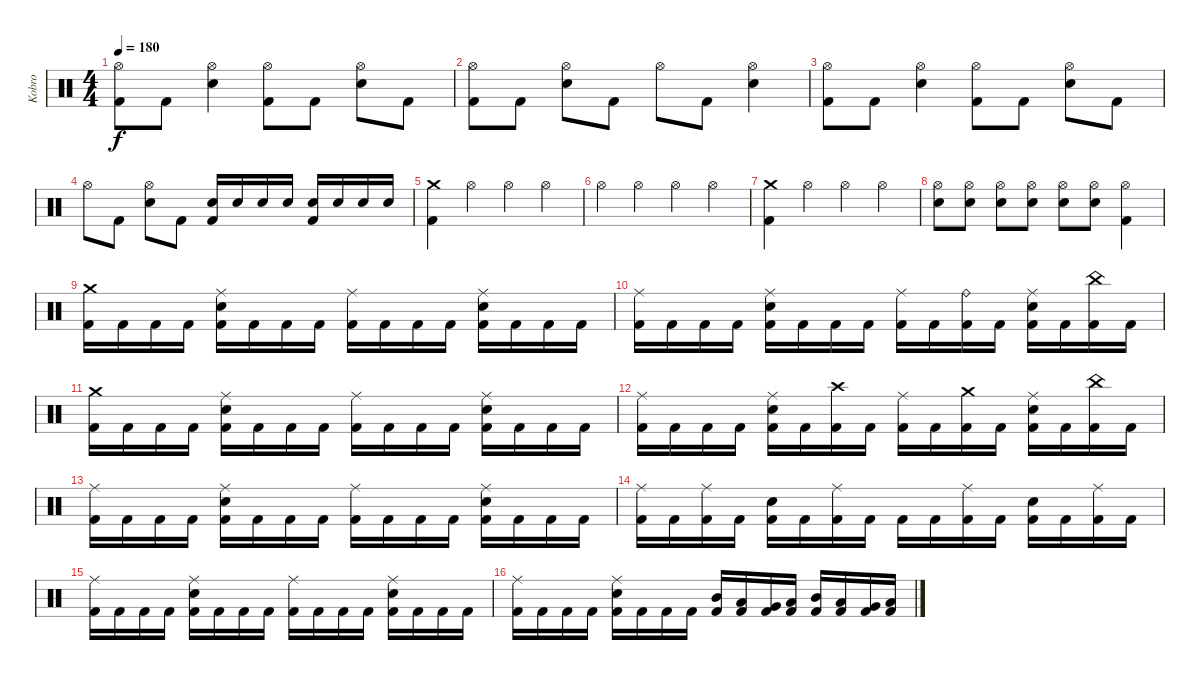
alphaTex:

\track ("Kobro" "Kobro") {instrument percussion}
\staff {score}
\articulation defaults
\ts (4 4)
\tempo 180
\clef neutral
\ks c
("Hi-Hat (open)" "Kick (hit) 2").8{dy f} "Kick (hit) 2".8 ("Hi-Hat (open)" "Electric Snare (hit)").4 ("Hi-Hat (open)" "Kick (hit) 2").8 "Kick (hit) 2".8 ("Hi-Hat (open)" "Electric Snare (hit)").8 "Kick (hit) 2".8 |
("Hi-Hat (open)" "Kick (hit) 2").8 "Kick (hit) 2".8 ("Hi-Hat (open)" "Electric Snare (hit)").8 "Kick (hit) 2".8 "Hi-Hat (open)".8 "Kick (hit) 2".8 ("Hi-Hat (open)" "Electric Snare (hit)").4 |
("Hi-Hat (open)" "Kick (hit) 2").8 "Kick (hit) 2".8 ("Hi-Hat (open)" "Electric Snare (hit)").4 ("Hi-Hat (open)" "Kick (hit) 2").8 "Kick (hit) 2".8 ("Hi-Hat (open)" "Electric Snare (hit)").8 "Kick (hit) 2".8 |
"Hi-Hat (open)".8 "Kick (hit) 2".8 ("Hi-Hat (open)" "Electric Snare (hit)").8 "Kick (hit) 2".8 ("Electric Snare (hit)" "Kick (hit) 2").16 "Electric Snare (hit)".16 "Electric Snare (hit)".16 "Electric Snare (hit)".16 ("Electric Snare (hit)" "Kick (hit) 2").16 "Electric Snare (hit)".16 "Electric Snare (hit)".16 "Electric Snare (hit)".16 |
("Crash medium (hit)" "Kick (hit) 2").4 "Hi-Hat (open)".4 "Hi-Hat (open)".4 "Hi-Hat (open)".4 |
"Hi-Hat (open)".4 "Hi-Hat (open)".4 "Hi-Hat (open)".4 "Hi-Hat (open)".4 |
("Crash medium (hit)" "Kick (hit) 2").4 "Hi-Hat (open)".4 "Hi-Hat (open)".4 "Hi-Hat (open)".4 |
("Hi-Hat (open)" "Electric Snare (hit)").8 ("Hi-Hat (open)" "Electric Snare (hit)").8 ("Hi-Hat (open)" "Electric Snare (hit)").8 ("Hi-Hat (open)" "Electric Snare (hit)").8 ("Hi-Hat (open)" "Electric Snare (hit)").8 ("Hi-Hat (open)" "Electric Snare (hit)").8 ("Hi-Hat (open)" "Kick (hit) 2").4 |
("Crash medium (hit)" "Kick (hit) 2").16 "Kick (hit) 2".16 "Kick (hit) 2".16 "Kick (hit) 2".16 ("Ride (middle)" "Electric Snare (hit)" "Kick (hit) 2").16 "Kick (hit) 2".16 "Kick (hit) 2".16 "Kick (hit) 2".16 ("Ride (middle)" "Kick (hit) 2").16 "Kick (hit) 2".16 "Kick (hit) 2".16 "Kick (hit) 2".16 ("Ride (middle)" "Electric Snare (hit)" "Kick (hit) 2").16 "Kick (hit) 2".16 "Kick (hit) 2".16 "Kick (hit) 2".16 |
("Ride (middle)" "Kick (hit) 2").16 "Kick (hit) 2".16 "Kick (hit) 2".16 "Kick (hit) 2".16 ("Ride (middle)" "Electric Snare (hit)" "Kick (hit) 2").16 "Kick (hit) 2".16 "Kick (hit) 2".16 "Kick (hit) 2".16 ("Ride (middle)" "Kick (hit) 2").16 "Kick (hit) 2".16 ("Ride (bell)" "Kick (hit) 2").16 "Kick (hit) 2".16 ("Ride (middle)" "Electric Snare (hit)" "Kick (hit) 2").16 "Kick (hit) 2".16 ("China (hit)" "Kick (hit) 2").16 "Kick (hit) 2".16 |
("Crash medium (hit)" "Kick (hit) 2").16 "Kick (hit) 2".16 "Kick (hit) 2".16 "Kick (hit) 2".16 ("Ride (middle)" "Electric Snare (hit)" "Kick (hit) 2").16 "Kick (hit) 2".16 "Kick (hit) 2".16 "Kick (hit) 2".16 ("Ride (middle)" "Kick (hit) 2").16 "Kick (hit) 2".16 "Kick (hit) 2".16 "Kick (hit) 2".16 ("Ride (middle)" "Electric Snare (hit)" "Kick (hit) 2").16 "Kick (hit) 2".16 "Kick (hit) 2".16 "Kick (hit) 2".16 |
("Ride (middle)" "Kick (hit) 2").16 "Kick (hit) 2".16 "Kick (hit) 2".16 "Kick (hit) 2".16 ("Ride (middle)" "Electric Snare (hit)" "Kick (hit) 2").16 "Kick (hit) 2".16 ("Crash high (hit)" "Kick (hit) 2").16 "Kick (hit) 2".16 ("Ride (middle)" "Kick (hit) 2").16 "Kick (hit) 2".16 ("Crash medium (hit)" "Kick (hit) 2").16 "Kick (hit) 2".16 ("Ride (middle)" "Electric Snare (hit)" "Kick (hit) 2").16 "Kick (hit) 2".16 ("China (hit)" "Kick (hit) 2").16 "Kick (hit) 2".16 |
("Ride (middle)" "Kick (hit) 2").16 "Kick (hit) 2".16 "Kick (hit) 2".16 "Kick (hit) 2".16 ("Ride (middle)" "Electric Snare (hit)" "Kick (hit) 2").16 "Kick (hit) 2".16 "Kick (hit) 2".16 "Kick (hit) 2".16 ("Ride (middle)" "Kick (hit) 2").16 "Kick (hit) 2".16 "Kick (hit) 2".16 "Kick (hit) 2".16 ("Ride (middle)" "Electric Snare (hit)" "Kick (hit) 2").16 "Kick (hit) 2".16 "Kick (hit) 2".16 "Kick (hit) 2".16 |
("Ride (middle)" "Kick (hit) 2").16 "Kick (hit) 2".16 ("Ride (middle)" "Kick (hit) 2").16 "Kick (hit) 2".16 ("Electric Snare (hit)" "Kick (hit) 2").16 "Kick (hit) 2".16 ("Ride (middle)" "Kick (hit) 2").16 "Kick (hit) 2".16 "Kick (hit) 2".16 "Kick (hit) 2".16 ("Ride (middle)" "Kick (hit) 2").16 "Kick (hit) 2".16 ("Electric Snare (hit)" "Kick (hit) 2").16 "Kick (hit) 2".16 ("Ride (middle)" "Kick (hit) 2").16 "Kick (hit) 2".16 |
("Ride (middle)" "Kick (hit) 2").16 "Kick (hit) 2".16 "Kick (hit) 2".16 "Kick (hit) 2".16 ("Ride (middle)" "Electric Snare (hit)" "Kick (hit) 2").16 "Kick (hit) 2".16 "Kick (hit) 2".16 "Kick (hit) 2".16 ("Ride (middle)" "Kick (hit) 2").16 "Kick (hit) 2".16 "Kick (hit) 2".16 "Kick (hit) 2".16 ("Ride (middle)" "Electric Snare (hit)" "Kick (hit) 2").16 "Kick (hit) 2".16 "Kick (hit) 2".16 "Kick (hit) 2".16 |
("Ride (middle)" "Kick (hit) 2").16 "Kick (hit) 2".16 "Kick (hit) 2".16 "Kick (hit) 2".16 ("Ride (middle)" "Electric Snare (hit)" "Kick (hit) 2").16 "Kick (hit) 2".16 "Kick (hit) 2".16 "Kick (hit) 2".16 ("Mid Tom (hit)" "Kick (hit) 2").16 ("Low Tom (hit)" "Kick (hit) 2").16 ("Very Low Tom (hit)" "Kick (hit) 2").16 ("Low Tom (hit)" "Kick (hit) 2").16 ("Mid Tom (hit)" "Kick (hit) 2").16 ("Low Tom (hit)" "Kick (hit) 2").16 ("Very Low Tom (hit)" "Kick (hit) 2").16 ("Low Floor Tom (hit)" "Kick (hit) 2").16
